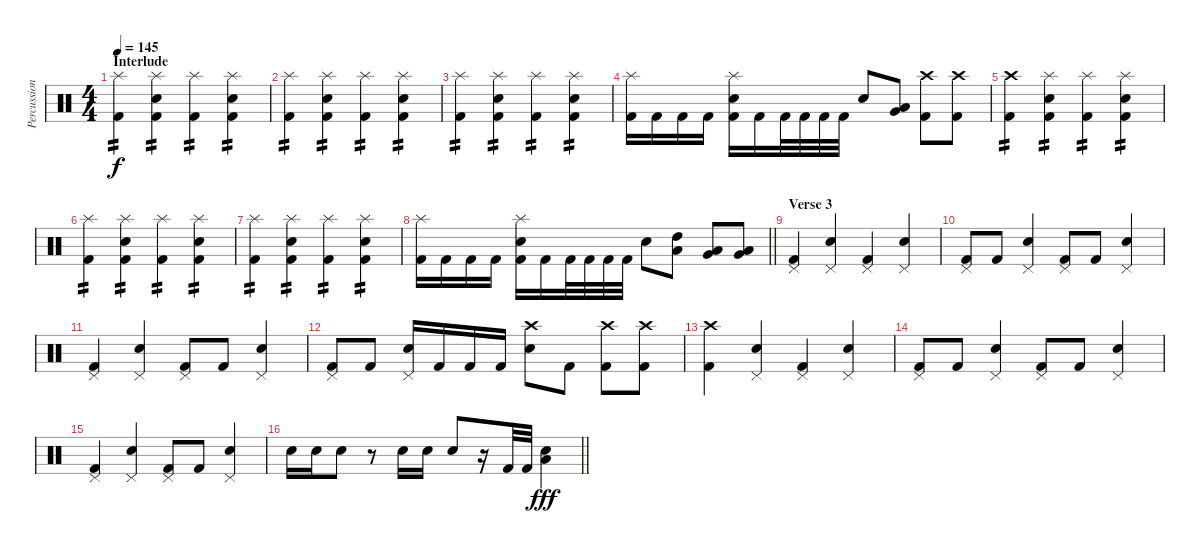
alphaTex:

\track ("Percussion" "Percussion") {instrument percussion}
\staff {score}
\articulation defaults
\ts (4 4)
\section ("" "Interlude")
\tempo 145
\clef neutral
\ks c
("Splash (hit)" "Kick (hit) 2").4{tp 2 dy f} ("Electric Snare (hit)" "Splash (hit)" "Kick (hit) 2").4{tp 2} ("Splash (hit)" "Kick (hit) 2").4{tp 2} ("Electric Snare (hit)" "Splash (hit)" "Kick (hit) 2").4{tp 2} |
("Splash (hit)" "Kick (hit) 2").4{tp 2} ("Electric Snare (hit)" "Splash (hit)" "Kick (hit) 2").4{tp 2} ("Splash (hit)" "Kick (hit) 2").4{tp 2} ("Electric Snare (hit)" "Splash (hit)" "Kick (hit) 2").4{tp 2} |
("Splash (hit)" "Kick (hit) 2").4{tp 2} ("Electric Snare (hit)" "Splash (hit)" "Kick (hit) 2").4{tp 2} ("Splash (hit)" "Kick (hit) 2").4{tp 2} ("Electric Snare (hit)" "Splash (hit)" "Kick (hit) 2").4{tp 2} |
("Splash (hit)" "Kick (hit) 2").16 "Kick (hit) 2".16 "Kick (hit) 2".16 "Kick (hit) 2".16 ("Electric Snare (hit)" "Splash (hit)" "Kick (hit) 2").16 "Kick (hit) 2".16 "Kick (hit) 2".32 "Kick (hit) 2".32 "Kick (hit) 2".32 "Kick (hit) 2".32 "Electric Snare (hit)".8 ("Very Low Tom (hit)" "Low Floor Tom (hit)").8 ("Crash high (hit)" "Kick (hit) 2").8 ("Crash high (hit)" "Kick (hit) 2").8 |
("Crash high (hit)" "Kick (hit) 2").4{tp 2} ("Electric Snare (hit)" "Splash (hit)" "Kick (hit) 2").4{tp 2} ("Splash (hit)" "Kick (hit) 2").4{tp 2} ("Electric Snare (hit)" "Splash (hit)" "Kick (hit) 2").4{tp 2} |
("Splash (hit)" "Kick (hit) 2").4{tp 2} ("Electric Snare (hit)" "Splash (hit)" "Kick (hit) 2").4{tp 2} ("Splash (hit)" "Kick (hit) 2").4{tp 2} ("Electric Snare (hit)" "Splash (hit)" "Kick (hit) 2").4{tp 2} |
("Splash (hit)" "Kick (hit) 2").4{tp 2} ("Electric Snare (hit)" "Splash (hit)" "Kick (hit) 2").4{tp 2} ("Splash (hit)" "Kick (hit) 2").4{tp 2} ("Electric Snare (hit)" "Splash (hit)" "Kick (hit) 2").4{tp 2} |
\barLineRight lightlight
("Splash (hit)" "Kick (hit) 2").16 "Kick (hit) 2".16 "Kick (hit) 2".16 "Kick (hit) 2".16 ("Electric Snare (hit)" "Splash (hit)" "Kick (hit) 2").16 "Kick (hit) 2".16 "Kick (hit) 2".32 "Kick (hit) 2".32 "Kick (hit) 2".32 "Kick (hit) 2".32 "Electric Snare (hit)".8 ("High Tom (hit)" "Low Tom (hit)").8 ("Low Tom (hit)" "Very Low Tom (hit)").8 ("Very Low Tom (hit)" "Low Floor Tom (hit)").8 |
\section ("" "Verse 3")
("Pedal Hi-Hat (hit)" "Kick (hit) 2").4 ("Electric Snare (hit)" "Pedal Hi-Hat (hit)").4 ("Pedal Hi-Hat (hit)" "Kick (hit) 2").4 ("Electric Snare (hit)" "Pedal Hi-Hat (hit)").4 |
("Pedal Hi-Hat (hit)" "Kick (hit) 2").8 "Kick (hit) 2".8 ("Electric Snare (hit)" "Pedal Hi-Hat (hit)").4 ("Pedal Hi-Hat (hit)" "Kick (hit) 2").8 "Kick (hit) 2".8 ("Electric Snare (hit)" "Pedal Hi-Hat (hit)").4 |
("Pedal Hi-Hat (hit)" "Kick (hit) 2").4 ("Electric Snare (hit)" "Pedal Hi-Hat (hit)").4 ("Pedal Hi-Hat (hit)" "Kick (hit) 2").8 "Kick (hit) 2".8 ("Electric Snare (hit)" "Pedal Hi-Hat (hit)").4 |
("Pedal Hi-Hat (hit)" "Kick (hit) 2").8 "Kick (hit) 2".8 ("Electric Snare (hit)" "Pedal Hi-Hat (hit)").16 "Kick (hit) 2".16 "Kick (hit) 2".16 "Kick (hit) 2".16 ("Electric Snare (hit)" "Crash high (hit)").8 "Kick (hit) 2".8 ("Crash high (hit)" "Kick (hit) 2").8 ("Crash high (hit)" "Kick (hit) 2").8 |
("Crash high (hit)" "Kick (hit) 2").4 ("Electric Snare (hit)" "Pedal Hi-Hat (hit)").4 ("Pedal Hi-Hat (hit)" "Kick (hit) 2").4 ("Electric Snare (hit)" "Pedal Hi-Hat (hit)").4 |
("Pedal Hi-Hat (hit)" "Kick (hit) 2").8 "Kick (hit) 2".8 ("Electric Snare (hit)" "Pedal Hi-Hat (hit)").4 ("Pedal Hi-Hat (hit)" "Kick (hit) 2").8 "Kick (hit) 2".8 ("Electric Snare (hit)" "Pedal Hi-Hat (hit)").4 |
("Pedal Hi-Hat (hit)" "Kick (hit) 2").4 ("Electric Snare (hit)" "Pedal Hi-Hat (hit)").4 ("Pedal Hi-Hat (hit)" "Kick (hit) 2").8 "Kick (hit) 2".8 ("Electric Snare (hit)" "Pedal Hi-Hat (hit)").4 |
\barLineRight lightlight "Electric Snare (hit)".16 "Electric Snare (hit)".16 "Electric Snare (hit)".8
r.8 "Electric Snare (hit)".16 "Electric Snare (hit)".16 "Electric Snare (hit)".8 r.16 "Kick (hit) 2".32 "Kick (hit) 2".32 ("Low Floor Tom (hit)" "Electric Snare (hit)").4{dy fff}
